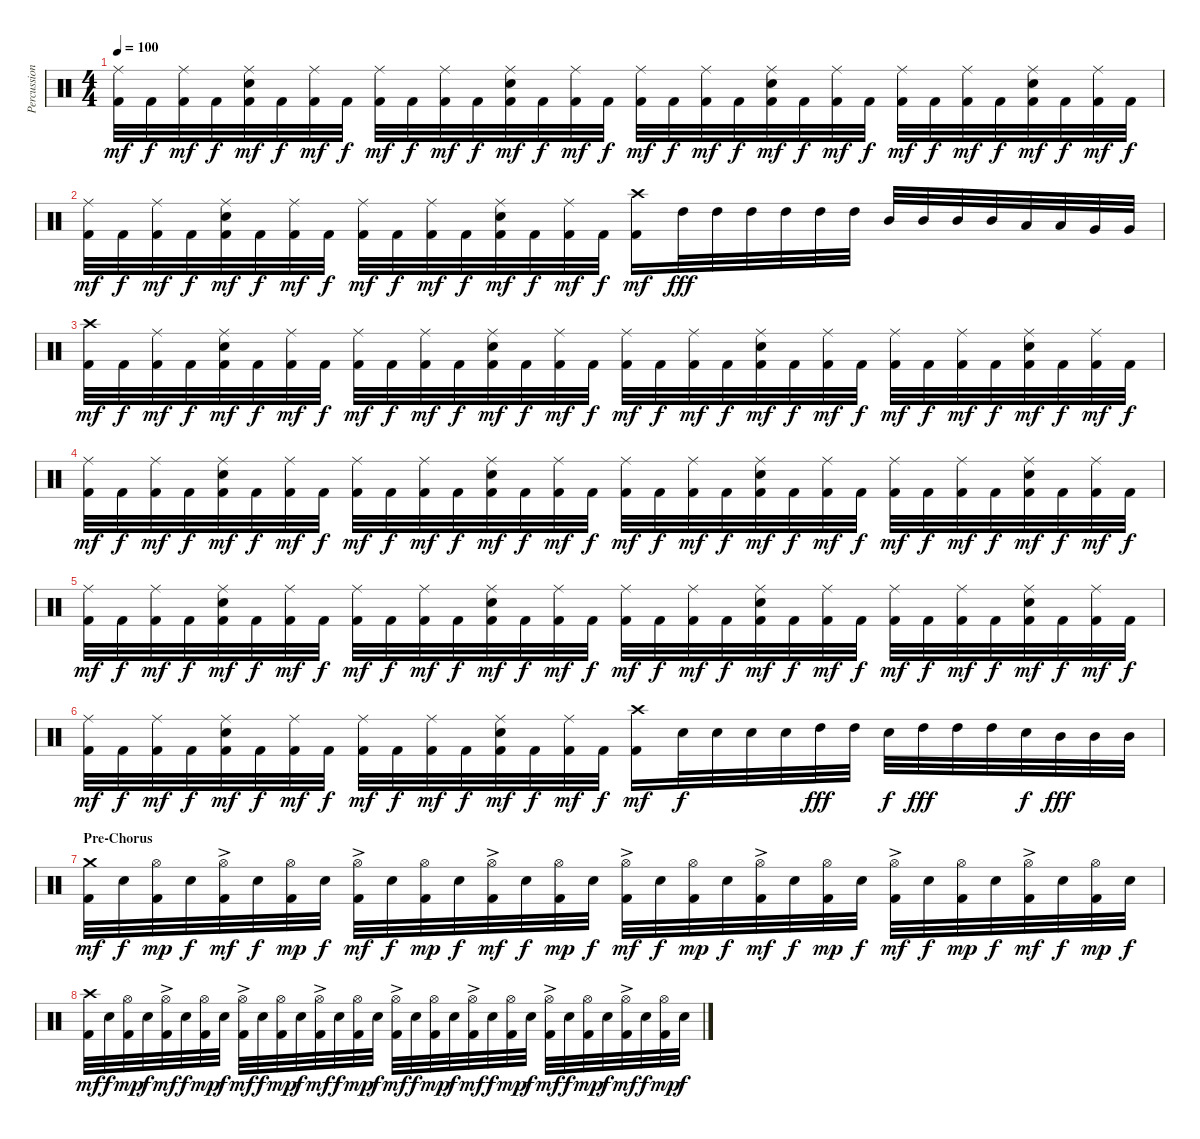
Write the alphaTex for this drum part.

\track ("Percussion" "Percussion") {instrument percussion}
\staff {score}
\articulation defaults
\ts (4 4)
\tempo 100
\clef neutral
\ks c
("Ride (middle)" "Kick (hit) 2").32{dy mf} "Kick (hit) 2".32{dy f} ("Ride (middle)" "Kick (hit) 2").32{dy mf} "Kick (hit) 2".32{dy f} ("Ride (middle)" "Electric Snare (hit)" "Kick (hit) 2").32{dy mf} "Kick (hit) 2".32{dy f} ("Ride (middle)" "Kick (hit) 2").32{dy mf} "Kick (hit) 2".32{dy f} ("Ride (middle)" "Kick (hit) 2").32{dy mf} "Kick (hit) 2".32{dy f} ("Ride (middle)" "Kick (hit) 2").32{dy mf} "Kick (hit) 2".32{dy f} ("Ride (middle)" "Electric Snare (hit)" "Kick (hit) 2").32{dy mf} "Kick (hit) 2".32{dy f} ("Ride (middle)" "Kick (hit) 2").32{dy mf} "Kick (hit) 2".32{dy f} ("Ride (middle)" "Kick (hit) 2").32{dy mf} "Kick (hit) 2".32{dy f} ("Ride (middle)" "Kick (hit) 2").32{dy mf} "Kick (hit) 2".32{dy f} ("Ride (middle)" "Electric Snare (hit)" "Kick (hit) 2").32{dy mf} "Kick (hit) 2".32{dy f} ("Ride (middle)" "Kick (hit) 2").32{dy mf} "Kick (hit) 2".32{dy f} ("Ride (middle)" "Kick (hit) 2").32{dy mf} "Kick (hit) 2".32{dy f} ("Ride (middle)" "Kick (hit) 2").32{dy mf} "Kick (hit) 2".32{dy f} ("Ride (middle)" "Electric Snare (hit)" "Kick (hit) 2").32{dy mf} "Kick (hit) 2".32{dy f} ("Ride (middle)" "Kick (hit) 2").32{dy mf} "Kick (hit) 2".32{dy f} |
("Ride (middle)" "Kick (hit) 2").32{dy mf} "Kick (hit) 2".32{dy f} ("Ride (middle)" "Kick (hit) 2").32{dy mf} "Kick (hit) 2".32{dy f} ("Ride (middle)" "Electric Snare (hit)" "Kick (hit) 2").32{dy mf} "Kick (hit) 2".32{dy f} ("Ride (middle)" "Kick (hit) 2").32{dy mf} "Kick (hit) 2".32{dy f} ("Ride (middle)" "Kick (hit) 2").32{dy mf} "Kick (hit) 2".32{dy f} ("Ride (middle)" "Kick (hit) 2").32{dy mf} "Kick (hit) 2".32{dy f} ("Ride (middle)" "Electric Snare (hit)" "Kick (hit) 2").32{dy mf} "Kick (hit) 2".32{dy f} ("Ride (middle)" "Kick (hit) 2").32{dy mf} "Kick (hit) 2".32{dy f} ("Crash high (hit)" "Kick (hit) 2").16{dy mf} "High Tom (hit)".32{dy fff} "High Tom (hit)".32 "High Tom (hit)".32 "High Tom (hit)".32 "High Tom (hit)".32 "High Tom (hit)".32 "Mid Tom (hit)".32 "Mid Tom (hit)".32 "Mid Tom (hit)".32 "Mid Tom (hit)".32 "Low Tom (hit)".32 "Low Tom (hit)".32 "Very Low Tom (hit)".32 "Very Low Tom (hit)".32 |
("Crash high (hit)" "Kick (hit) 2").32{dy mf} "Kick (hit) 2".32{dy f} ("Ride (middle)" "Kick (hit) 2").32{dy mf} "Kick (hit) 2".32{dy f} ("Ride (middle)" "Electric Snare (hit)" "Kick (hit) 2").32{dy mf} "Kick (hit) 2".32{dy f} ("Ride (middle)" "Kick (hit) 2").32{dy mf} "Kick (hit) 2".32{dy f} ("Ride (middle)" "Kick (hit) 2").32{dy mf} "Kick (hit) 2".32{dy f} ("Ride (middle)" "Kick (hit) 2").32{dy mf} "Kick (hit) 2".32{dy f} ("Ride (middle)" "Electric Snare (hit)" "Kick (hit) 2").32{dy mf} "Kick (hit) 2".32{dy f} ("Ride (middle)" "Kick (hit) 2").32{dy mf} "Kick (hit) 2".32{dy f} ("Ride (middle)" "Kick (hit) 2").32{dy mf} "Kick (hit) 2".32{dy f} ("Ride (middle)" "Kick (hit) 2").32{dy mf} "Kick (hit) 2".32{dy f} ("Ride (middle)" "Electric Snare (hit)" "Kick (hit) 2").32{dy mf} "Kick (hit) 2".32{dy f} ("Ride (middle)" "Kick (hit) 2").32{dy mf} "Kick (hit) 2".32{dy f} ("Ride (middle)" "Kick (hit) 2").32{dy mf} "Kick (hit) 2".32{dy f} ("Ride (middle)" "Kick (hit) 2").32{dy mf} "Kick (hit) 2".32{dy f} ("Ride (middle)" "Electric Snare (hit)" "Kick (hit) 2").32{dy mf} "Kick (hit) 2".32{dy f} ("Ride (middle)" "Kick (hit) 2").32{dy mf} "Kick (hit) 2".32{dy f} |
("Ride (middle)" "Kick (hit) 2").32{dy mf} "Kick (hit) 2".32{dy f} ("Ride (middle)" "Kick (hit) 2").32{dy mf} "Kick (hit) 2".32{dy f} ("Ride (middle)" "Electric Snare (hit)" "Kick (hit) 2").32{dy mf} "Kick (hit) 2".32{dy f} ("Ride (middle)" "Kick (hit) 2").32{dy mf} "Kick (hit) 2".32{dy f} ("Ride (middle)" "Kick (hit) 2").32{dy mf} "Kick (hit) 2".32{dy f} ("Ride (middle)" "Kick (hit) 2").32{dy mf} "Kick (hit) 2".32{dy f} ("Ride (middle)" "Electric Snare (hit)" "Kick (hit) 2").32{dy mf} "Kick (hit) 2".32{dy f} ("Ride (middle)" "Kick (hit) 2").32{dy mf} "Kick (hit) 2".32{dy f} ("Ride (middle)" "Kick (hit) 2").32{dy mf} "Kick (hit) 2".32{dy f} ("Ride (middle)" "Kick (hit) 2").32{dy mf} "Kick (hit) 2".32{dy f} ("Ride (middle)" "Electric Snare (hit)" "Kick (hit) 2").32{dy mf} "Kick (hit) 2".32{dy f} ("Ride (middle)" "Kick (hit) 2").32{dy mf} "Kick (hit) 2".32{dy f} ("Ride (middle)" "Kick (hit) 2").32{dy mf} "Kick (hit) 2".32{dy f} ("Ride (middle)" "Kick (hit) 2").32{dy mf} "Kick (hit) 2".32{dy f} ("Ride (middle)" "Electric Snare (hit)" "Kick (hit) 2").32{dy mf} "Kick (hit) 2".32{dy f} ("Ride (middle)" "Kick (hit) 2").32{dy mf} "Kick (hit) 2".32{dy f} |
("Ride (middle)" "Kick (hit) 2").32{dy mf} "Kick (hit) 2".32{dy f} ("Ride (middle)" "Kick (hit) 2").32{dy mf} "Kick (hit) 2".32{dy f} ("Ride (middle)" "Electric Snare (hit)" "Kick (hit) 2").32{dy mf} "Kick (hit) 2".32{dy f} ("Ride (middle)" "Kick (hit) 2").32{dy mf} "Kick (hit) 2".32{dy f} ("Ride (middle)" "Kick (hit) 2").32{dy mf} "Kick (hit) 2".32{dy f} ("Ride (middle)" "Kick (hit) 2").32{dy mf} "Kick (hit) 2".32{dy f} ("Ride (middle)" "Electric Snare (hit)" "Kick (hit) 2").32{dy mf} "Kick (hit) 2".32{dy f} ("Ride (middle)" "Kick (hit) 2").32{dy mf} "Kick (hit) 2".32{dy f} ("Ride (middle)" "Kick (hit) 2").32{dy mf} "Kick (hit) 2".32{dy f} ("Ride (middle)" "Kick (hit) 2").32{dy mf} "Kick (hit) 2".32{dy f} ("Ride (middle)" "Electric Snare (hit)" "Kick (hit) 2").32{dy mf} "Kick (hit) 2".32{dy f} ("Ride (middle)" "Kick (hit) 2").32{dy mf} "Kick (hit) 2".32{dy f} ("Ride (middle)" "Kick (hit) 2").32{dy mf} "Kick (hit) 2".32{dy f} ("Ride (middle)" "Kick (hit) 2").32{dy mf} "Kick (hit) 2".32{dy f} ("Ride (middle)" "Electric Snare (hit)" "Kick (hit) 2").32{dy mf} "Kick (hit) 2".32{dy f} ("Ride (middle)" "Kick (hit) 2").32{dy mf} "Kick (hit) 2".32{dy f} |
("Ride (middle)" "Kick (hit) 2").32{dy mf} "Kick (hit) 2".32{dy f} ("Ride (middle)" "Kick (hit) 2").32{dy mf} "Kick (hit) 2".32{dy f} ("Ride (middle)" "Electric Snare (hit)" "Kick (hit) 2").32{dy mf} "Kick (hit) 2".32{dy f} ("Ride (middle)" "Kick (hit) 2").32{dy mf} "Kick (hit) 2".32{dy f} ("Ride (middle)" "Kick (hit) 2").32{dy mf} "Kick (hit) 2".32{dy f} ("Ride (middle)" "Kick (hit) 2").32{dy mf} "Kick (hit) 2".32{dy f} ("Ride (middle)" "Electric Snare (hit)" "Kick (hit) 2").32{dy mf} "Kick (hit) 2".32{dy f} ("Ride (middle)" "Kick (hit) 2").32{dy mf} "Kick (hit) 2".32{dy f} ("Crash high (hit)" "Kick (hit) 2").16{dy mf} "Electric Snare (hit)".32{dy f} "Electric Snare (hit)".32 "Electric Snare (hit)".32 "Electric Snare (hit)".32 "High Tom (hit)".32{dy fff} "High Tom (hit)".32 "Electric Snare (hit)".32{dy f} "High Tom (hit)".32{dy fff} "High Tom (hit)".32 "High Tom (hit)".32 "Electric Snare (hit)".32{dy f} "Mid Tom (hit)".32{dy fff} "Mid Tom (hit)".32 "Mid Tom (hit)".32 |
\section ("" "Pre-Chorus")
("Crash medium (hit)" "Kick (hit) 2").32{dy mf} "Electric Snare (hit)".32{dy f} ("Hi-Hat (open)" "Kick (hit) 2").32{dy mp} "Electric Snare (hit)".32{dy f} ("Hi-Hat (open)"{ac} "Kick (hit) 2").32{dy mf} "Electric Snare (hit)".32{dy f} ("Hi-Hat (open)" "Kick (hit) 2").32{dy mp} "Electric Snare (hit)".32{dy f} ("Hi-Hat (open)"{ac} "Kick (hit) 2").32{dy mf} "Electric Snare (hit)".32{dy f} ("Hi-Hat (open)" "Kick (hit) 2").32{dy mp} "Electric Snare (hit)".32{dy f} ("Hi-Hat (open)"{ac} "Kick (hit) 2").32{dy mf} "Electric Snare (hit)".32{dy f} ("Hi-Hat (open)" "Kick (hit) 2").32{dy mp} "Electric Snare (hit)".32{dy f} ("Hi-Hat (open)"{ac} "Kick (hit) 2").32{dy mf} "Electric Snare (hit)".32{dy f} ("Hi-Hat (open)" "Kick (hit) 2").32{dy mp} "Electric Snare (hit)".32{dy f} ("Hi-Hat (open)"{ac} "Kick (hit) 2").32{dy mf} "Electric Snare (hit)".32{dy f} ("Hi-Hat (open)" "Kick (hit) 2").32{dy mp} "Electric Snare (hit)".32{dy f} ("Hi-Hat (open)"{ac} "Kick (hit) 2").32{dy mf} "Electric Snare (hit)".32{dy f} ("Hi-Hat (open)" "Kick (hit) 2").32{dy mp} "Electric Snare (hit)".32{dy f} ("Hi-Hat (open)"{ac} "Kick (hit) 2").32{dy mf} "Electric Snare (hit)".32{dy f} ("Hi-Hat (open)" "Kick (hit) 2").32{dy mp} "Electric Snare (hit)".32{dy f} |
("Crash high (hit)" "Kick (hit) 2").32{dy mf} "Electric Snare (hit)".32{dy f} ("Hi-Hat (open)" "Kick (hit) 2").32{dy mp} "Electric Snare (hit)".32{dy f} ("Hi-Hat (open)"{ac} "Kick (hit) 2").32{dy mf} "Electric Snare (hit)".32{dy f} ("Hi-Hat (open)" "Kick (hit) 2").32{dy mp} "Electric Snare (hit)".32{dy f} ("Hi-Hat (open)"{ac} "Kick (hit) 2").32{dy mf} "Electric Snare (hit)".32{dy f} ("Hi-Hat (open)" "Kick (hit) 2").32{dy mp} "Electric Snare (hit)".32{dy f} ("Hi-Hat (open)"{ac} "Kick (hit) 2").32{dy mf} "Electric Snare (hit)".32{dy f} ("Hi-Hat (open)" "Kick (hit) 2").32{dy mp} "Electric Snare (hit)".32{dy f} ("Hi-Hat (open)"{ac} "Kick (hit) 2").32{dy mf} "Electric Snare (hit)".32{dy f} ("Hi-Hat (open)" "Kick (hit) 2").32{dy mp} "Electric Snare (hit)".32{dy f} ("Hi-Hat (open)"{ac} "Kick (hit) 2").32{dy mf} "Electric Snare (hit)".32{dy f} ("Hi-Hat (open)" "Kick (hit) 2").32{dy mp} "Electric Snare (hit)".32{dy f} ("Hi-Hat (open)"{ac} "Kick (hit) 2").32{dy mf} "Electric Snare (hit)".32{dy f} ("Hi-Hat (open)" "Kick (hit) 2").32{dy mp} "Electric Snare (hit)".32{dy f} ("Hi-Hat (open)"{ac} "Kick (hit) 2").32{dy mf} "Electric Snare (hit)".32{dy f} ("Hi-Hat (open)" "Kick (hit) 2").32{dy mp} "Electric Snare (hit)".32{dy f}
